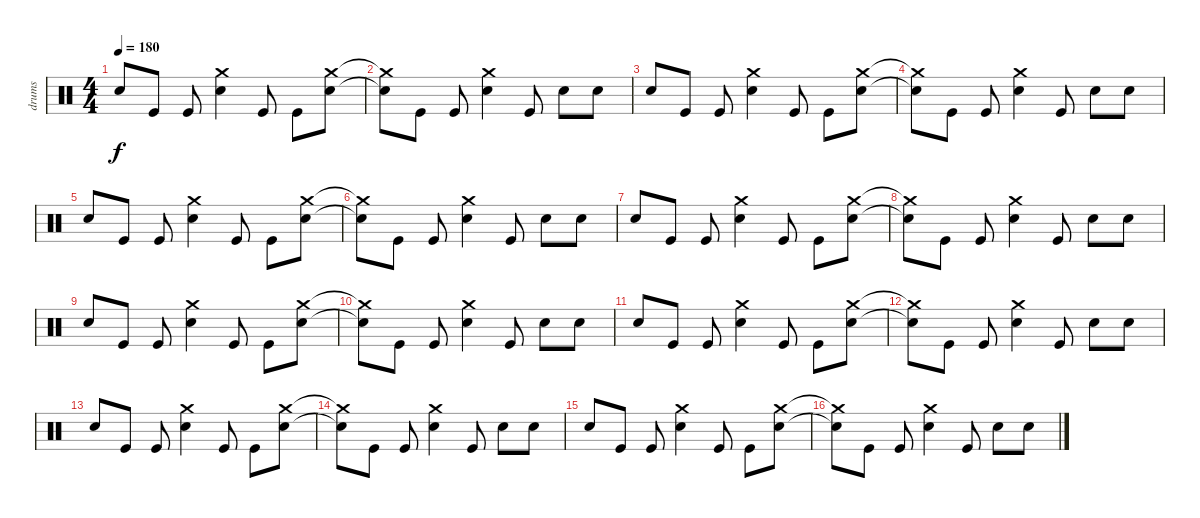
\track ("drums" "drums") {instrument percussion}
\staff {score}
\articulation defaults
\ts (4 4)
\tempo 180
\clef neutral
\ks c "Electric Snare (hit)".8{dy f} "Kick (hit)".8 "Kick (hit)".8
("Crash medium (hit)" "Electric Snare (hit)").4 "Kick (hit)".8 "Kick (hit)".8 ("Crash medium (hit)" "Electric Snare (hit)").8 |
("Crash medium (hit)"{t} "Electric Snare (hit)"{t}).8 "Kick (hit)".8 "Kick (hit)".8 ("Crash medium (hit)" "Electric Snare (hit)").4 "Kick (hit)".8 "Electric Snare (hit)".8 "Electric Snare (hit)".8 |
"Electric Snare (hit)".8 "Kick (hit)".8 "Kick (hit)".8 ("Crash medium (hit)" "Electric Snare (hit)").4 "Kick (hit)".8 "Kick (hit)".8 ("Crash medium (hit)" "Electric Snare (hit)").8 |
("Crash medium (hit)"{t} "Electric Snare (hit)"{t}).8 "Kick (hit)".8 "Kick (hit)".8 ("Crash medium (hit)" "Electric Snare (hit)").4 "Kick (hit)".8 "Electric Snare (hit)".8 "Electric Snare (hit)".8 |
"Electric Snare (hit)".8 "Kick (hit)".8 "Kick (hit)".8 ("Crash medium (hit)" "Electric Snare (hit)").4 "Kick (hit)".8 "Kick (hit)".8 ("Crash medium (hit)" "Electric Snare (hit)").8 |
("Crash medium (hit)"{t} "Electric Snare (hit)"{t}).8 "Kick (hit)".8 "Kick (hit)".8 ("Crash medium (hit)" "Electric Snare (hit)").4 "Kick (hit)".8 "Electric Snare (hit)".8 "Electric Snare (hit)".8 |
"Electric Snare (hit)".8 "Kick (hit)".8 "Kick (hit)".8 ("Crash medium (hit)" "Electric Snare (hit)").4 "Kick (hit)".8 "Kick (hit)".8 ("Crash medium (hit)" "Electric Snare (hit)").8 |
("Crash medium (hit)"{t} "Electric Snare (hit)"{t}).8 "Kick (hit)".8 "Kick (hit)".8 ("Crash medium (hit)" "Electric Snare (hit)").4 "Kick (hit)".8 "Electric Snare (hit)".8 "Electric Snare (hit)".8 |
"Electric Snare (hit)".8 "Kick (hit)".8 "Kick (hit)".8 ("Crash medium (hit)" "Electric Snare (hit)").4 "Kick (hit)".8 "Kick (hit)".8 ("Crash medium (hit)" "Electric Snare (hit)").8 |
("Crash medium (hit)"{t} "Electric Snare (hit)"{t}).8 "Kick (hit)".8 "Kick (hit)".8 ("Crash medium (hit)" "Electric Snare (hit)").4 "Kick (hit)".8 "Electric Snare (hit)".8 "Electric Snare (hit)".8 |
"Electric Snare (hit)".8 "Kick (hit)".8 "Kick (hit)".8 ("Crash medium (hit)" "Electric Snare (hit)").4 "Kick (hit)".8 "Kick (hit)".8 ("Crash medium (hit)" "Electric Snare (hit)").8 |
("Crash medium (hit)"{t} "Electric Snare (hit)"{t}).8 "Kick (hit)".8 "Kick (hit)".8 ("Crash medium (hit)" "Electric Snare (hit)").4 "Kick (hit)".8 "Electric Snare (hit)".8 "Electric Snare (hit)".8 |
"Electric Snare (hit)".8 "Kick (hit)".8 "Kick (hit)".8 ("Crash medium (hit)" "Electric Snare (hit)").4 "Kick (hit)".8 "Kick (hit)".8 ("Crash medium (hit)" "Electric Snare (hit)").8 |
("Crash medium (hit)"{t} "Electric Snare (hit)"{t}).8 "Kick (hit)".8 "Kick (hit)".8 ("Crash medium (hit)" "Electric Snare (hit)").4 "Kick (hit)".8 "Electric Snare (hit)".8 "Electric Snare (hit)".8 |
"Electric Snare (hit)".8 "Kick (hit)".8 "Kick (hit)".8 ("Crash medium (hit)" "Electric Snare (hit)").4 "Kick (hit)".8 "Kick (hit)".8 ("Crash medium (hit)" "Electric Snare (hit)").8 |
("Crash medium (hit)"{t} "Electric Snare (hit)"{t}).8 "Kick (hit)".8 "Kick (hit)".8 ("Crash medium (hit)" "Electric Snare (hit)").4 "Kick (hit)".8 "Electric Snare (hit)".8 "Electric Snare (hit)".8
